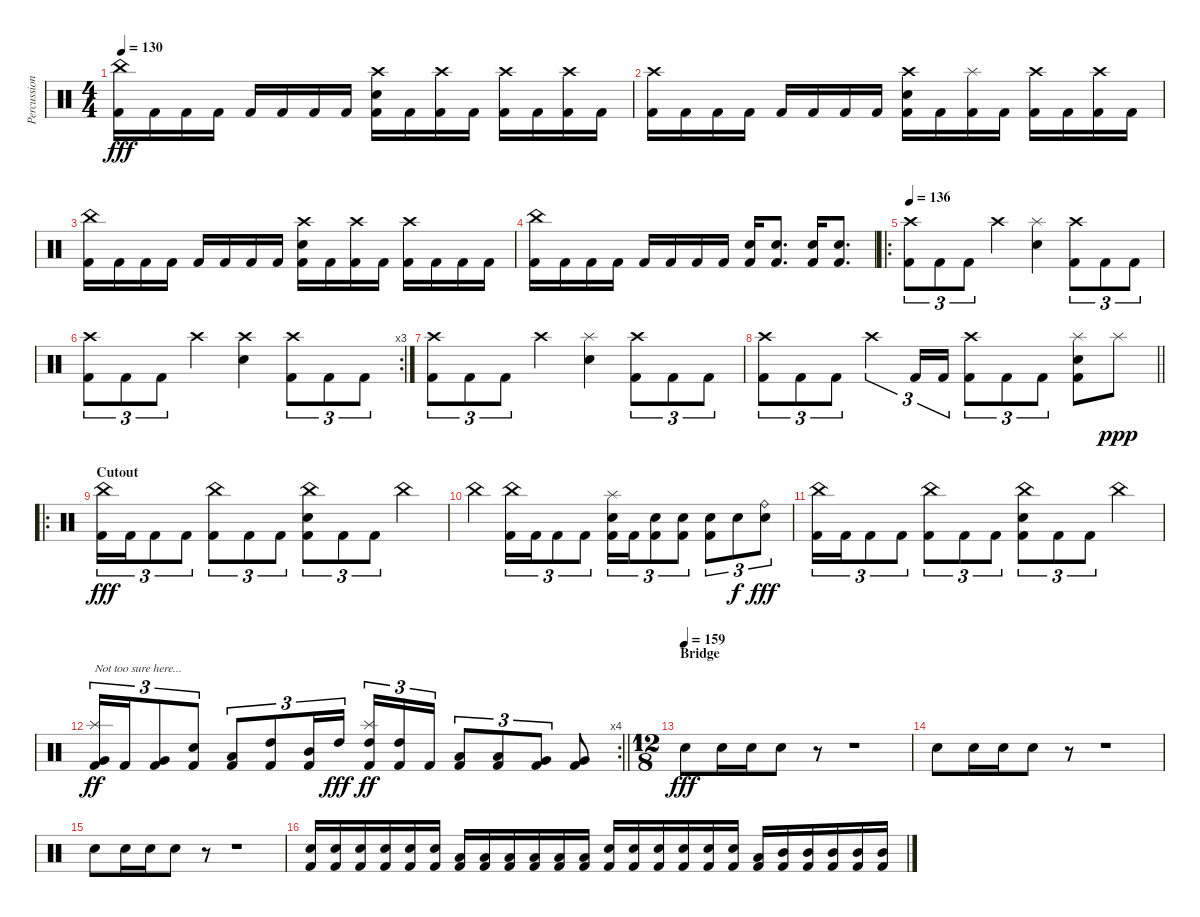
\track ("Percussion" "Percussion") {instrument percussion}
\staff {score}
\articulation defaults
\ts (4 4)
\tempo 130
\clef neutral
\ks c
("China (hit)" "Kick (hit) 2").16{dy fff} "Kick (hit) 2".16 "Kick (hit) 2".16 "Kick (hit) 2".16 "Kick (hit) 2".16 "Kick (hit) 2".16 "Kick (hit) 2".16 "Kick (hit) 2".16 ("Crash high (hit)" "Electric Snare (hit)" "Kick (hit) 2").16 "Kick (hit) 2".16 ("Crash high (hit)" "Kick (hit) 2").16 "Kick (hit) 2".16 ("Crash high (hit)" "Kick (hit) 2").16 "Kick (hit) 2".16 ("Crash high (hit)" "Kick (hit) 2").16 "Kick (hit) 2".16 |
("Crash high (hit)" "Kick (hit) 2").16 "Kick (hit) 2".16 "Kick (hit) 2".16 "Kick (hit) 2".16 "Kick (hit) 2".16 "Kick (hit) 2".16 "Kick (hit) 2".16 "Kick (hit) 2".16 ("Crash high (hit)" "Electric Snare (hit)" "Kick (hit) 2").16 "Kick (hit) 2".16 ("Splash (hit)" "Kick (hit) 2").16 "Kick (hit) 2".16 ("Crash high (hit)" "Kick (hit) 2").16 "Kick (hit) 2".16 ("Crash high (hit)" "Kick (hit) 2").16 "Kick (hit) 2".16 |
("China (hit)" "Kick (hit) 2").16 "Kick (hit) 2".16 "Kick (hit) 2".16 "Kick (hit) 2".16 "Kick (hit) 2".16 "Kick (hit) 2".16 "Kick (hit) 2".16 "Kick (hit) 2".16 ("Crash high (hit)" "Electric Snare (hit)" "Kick (hit) 2").16 "Kick (hit) 2".16 ("Crash high (hit)" "Kick (hit) 2").16 "Kick (hit) 2".16 ("Crash high (hit)" "Kick (hit) 2").16 "Kick (hit) 2".16 "Kick (hit) 2".16 "Kick (hit) 2".16 |
("China (hit)" "Kick (hit) 2").16 "Kick (hit) 2".16 "Kick (hit) 2".16 "Kick (hit) 2".16 "Kick (hit) 2".16 "Kick (hit) 2".16 "Kick (hit) 2".16 "Kick (hit) 2".16 ("Electric Snare (hit)" "Kick (hit) 2").16 ("Electric Snare (hit)" "Kick (hit) 2").8{d} ("Electric Snare (hit)" "Kick (hit) 2").16 ("Electric Snare (hit)" "Kick (hit) 2").8{d} |
\ro
\tempo 136
("Crash high (hit)" "Kick (hit) 2").8{tu (3 2)} "Kick (hit) 2".8{tu (3 2)} "Kick (hit) 2".8{tu (3 2)} "Crash high (hit)".4 ("Splash (hit)" "Electric Snare (hit)").4 ("Crash high (hit)" "Kick (hit) 2").8{tu (3 2)} "Kick (hit) 2".8{tu (3 2)} "Kick (hit) 2".8{tu (3 2)} |
\rc 3
("Crash high (hit)" "Kick (hit) 2").8{tu (3 2)} "Kick (hit) 2".8{tu (3 2)} "Kick (hit) 2".8{tu (3 2)} "Crash high (hit)".4 ("Crash high (hit)" "Electric Snare (hit)").4 ("Crash high (hit)" "Kick (hit) 2").8{tu (3 2)} "Kick (hit) 2".8{tu (3 2)} "Kick (hit) 2".8{tu (3 2)} |
("Crash high (hit)" "Kick (hit) 2").8{tu (3 2)} "Kick (hit) 2".8{tu (3 2)} "Kick (hit) 2".8{tu (3 2)} "Crash high (hit)".4 ("Splash (hit)" "Electric Snare (hit)").4 ("Crash high (hit)" "Kick (hit) 2").8{tu (3 2)} "Kick (hit) 2".8{tu (3 2)} "Kick (hit) 2".8{tu (3 2)} |
\barLineRight lightlight
("Crash high (hit)" "Kick (hit) 2").8{tu (3 2)} "Kick (hit) 2".8{tu (3 2)} "Kick (hit) 2".8{tu (3 2)} "Crash high (hit)".4{tu (3 2)} "Kick (hit) 2".16{tu (3 2)} "Kick (hit) 2".16{tu (3 2)} ("Crash high (hit)" "Kick (hit) 2").8{tu (3 2)} "Kick (hit) 2".8{tu (3 2)} "Kick (hit) 2".8{tu (3 2)} ("Splash (hit)" "Electric Snare (hit)" "Kick (hit) 2").8 "Splash (hit)".8{dy ppp} |
\ro
\section ("" "Cutout")
("China (hit)" "Kick (hit) 2").16{tu (3 2) dy fff} "Kick (hit) 2".16{tu (3 2)} "Kick (hit) 2".8{tu (3 2)} "Kick (hit) 2".8{tu (3 2)} ("China (hit)" "Kick (hit) 2").8{tu (3 2)} "Kick (hit) 2".8{tu (3 2)} "Kick (hit) 2".8{tu (3 2)} ("China (hit)" "Electric Snare (hit)" "Kick (hit) 2").8{tu (3 2)} "Kick (hit) 2".8{tu (3 2)} "Kick (hit) 2".8{tu (3 2)} "China (hit)".4 |
"China (hit)".4 ("China (hit)" "Kick (hit) 2").16{tu (3 2)} "Kick (hit) 2".16{tu (3 2)} "Kick (hit) 2".8{tu (3 2)} "Kick (hit) 2".8{tu (3 2)} ("Splash (hit)" "Electric Snare (hit)" "Kick (hit) 2").16{tu (3 2)} "Kick (hit) 2".16{tu (3 2)} ("Electric Snare (hit)" "Kick (hit) 2").8{tu (3 2)} ("Electric Snare (hit)" "Kick (hit) 2").8{tu (3 2)} ("Electric Snare (hit)" "Kick (hit) 2").8{tu (3 2)} "Electric Snare (hit)".8{tu (3 2) dy f} ("Ride (bell)" "Electric Snare (hit)").8{tu (3 2) dy fff} |
("China (hit)" "Kick (hit) 2").16{tu (3 2)} "Kick (hit) 2".16{tu (3 2)} "Kick (hit) 2".8{tu (3 2)} "Kick (hit) 2".8{tu (3 2)} ("China (hit)" "Kick (hit) 2").8{tu (3 2)} "Kick (hit) 2".8{tu (3 2)} "Kick (hit) 2".8{tu (3 2)} ("China (hit)" "Electric Snare (hit)" "Kick (hit) 2").8{tu (3 2)} "Kick (hit) 2".8{tu (3 2)} "Kick (hit) 2".8{tu (3 2)} "China (hit)".4 |
\rc 4
\barLineRight lightlight
("Splash (hit)" "Very Low Tom (hit)" "Kick (hit) 2").16{tu (3 2) txt "Not too sure here..." dy ff} "Kick (hit) 2".16{tu (3 2)} ("Very Low Tom (hit)" "Kick (hit) 2").8{tu (3 2)} ("Electric Snare (hit)" "Kick (hit) 2").8{tu (3 2)} ("Low Tom (hit)" "Kick (hit) 2").8{tu (3 2)} ("High Tom (hit)" "Kick (hit) 2").8{tu (3 2)} ("Mid Tom (hit)" "Kick (hit) 2").16{tu (3 2)} "High Tom (hit)".16{tu (3 2) dy fff} ("Splash (hit)" "High Tom (hit)" "Kick (hit) 2").16{tu (3 2) dy ff} ("High Tom (hit)" "Kick (hit) 2").16{tu (3 2)} "Kick (hit) 2".16{tu (3 2)} ("Low Tom (hit)" "Kick (hit) 2").8{tu (3 2)} ("Low Tom (hit)" "Kick (hit) 2").8{tu (3 2)} ("Very Low Tom (hit)" "Kick (hit) 2").8{tu (3 2)} ("Very Low Tom (hit)" "Kick (hit) 2").8 |
\ts (12 8)
\section ("" "Bridge")
\tempo (159)
"Electric Snare (hit)".8{dy fff} "Electric Snare (hit)".16 "Electric Snare (hit)".16 "Electric Snare (hit)".8 r.8 r.1 |
"Electric Snare (hit)".8 "Electric Snare (hit)".16 "Electric Snare (hit)".16 "Electric Snare (hit)".8 r.8 r.1 |
"Electric Snare (hit)".8 "Electric Snare (hit)".16 "Electric Snare (hit)".16 "Electric Snare (hit)".8 r.8 r.1 |
("Electric Snare (hit)" "Kick (hit) 2").16 ("Electric Snare (hit)" "Kick (hit) 2").16 ("Electric Snare (hit)" "Kick (hit) 2").16 ("Electric Snare (hit)" "Kick (hit) 2").16 ("Electric Snare (hit)" "Kick (hit) 2").16 ("Electric Snare (hit)" "Kick (hit) 2").16 ("Low Tom (hit)" "Kick (hit) 2").16 ("Low Tom (hit)" "Kick (hit) 2").16 ("Low Tom (hit)" "Kick (hit) 2").16 ("Low Tom (hit)" "Kick (hit) 2").16 ("Low Tom (hit)" "Kick (hit) 2").16 ("Low Tom (hit)" "Kick (hit) 2").16 ("Electric Snare (hit)" "Kick (hit) 2").16 ("Electric Snare (hit)" "Kick (hit) 2").16 ("Electric Snare (hit)" "Kick (hit) 2").16 ("Electric Snare (hit)" "Kick (hit) 2").16 ("Electric Snare (hit)" "Kick (hit) 2").16 ("Electric Snare (hit)" "Kick (hit) 2").16 ("Low Tom (hit)" "Kick (hit) 2").16 ("Mid Tom (hit)" "Kick (hit) 2").16 ("Mid Tom (hit)" "Kick (hit) 2").16 ("Mid Tom (hit)" "Kick (hit) 2").16 ("Mid Tom (hit)" "Kick (hit) 2").16 ("Mid Tom (hit)" "Kick (hit) 2").16
